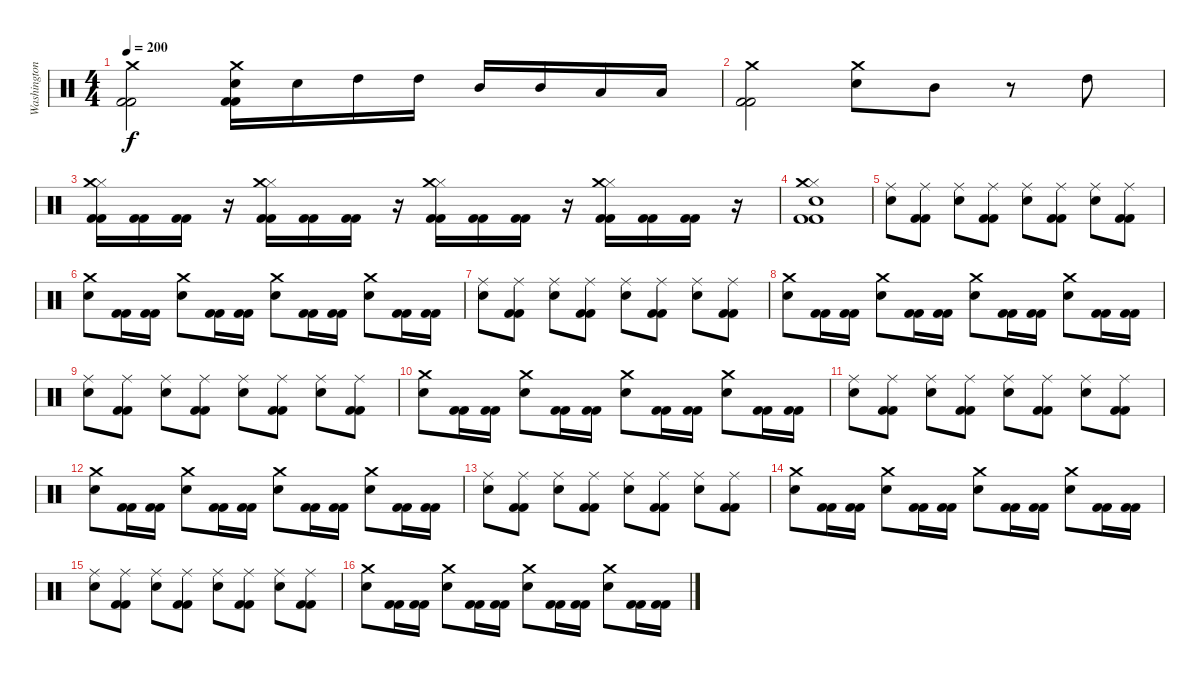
\track ("Washington" "Washington") {instrument percussion}
\staff {score}
\articulation defaults
\ts (4 4)
\tempo 200
\clef neutral
\ks c
("Crash medium (hit)" "Kick (hit) 2" "Kick (hit) 2").2{dy f} ("Crash medium (hit)" "Electric Snare (hit)" "Kick (hit) 2" "Kick (hit) 2").16 "Electric Snare (hit)".16 "High Tom (hit)".16 "High Tom (hit)".16 "Mid Tom (hit)".16 "Mid Tom (hit)".16 "Low Tom (hit)".16 "Low Tom (hit)".16 |
("Crash medium (hit)" "Kick (hit) 2" "Kick (hit) 2").2 ("Crash medium (hit)" "Electric Snare (hit)").8 "Mid Tom (hit)".8 r.8 "High Tom (hit)".8 |
("Hi-Hat (closed)" "Crash medium (hit)" "Kick (hit) 2" "Kick (hit) 2").16 ("Kick (hit) 2" "Kick (hit) 2").16 ("Kick (hit) 2" "Kick (hit) 2").16 r.16 ("Hi-Hat (closed)" "Crash medium (hit)" "Kick (hit) 2" "Kick (hit) 2").16 ("Kick (hit) 2" "Kick (hit) 2").16 ("Kick (hit) 2" "Kick (hit) 2").16 r.16 ("Hi-Hat (closed)" "Crash medium (hit)" "Kick (hit) 2" "Kick (hit) 2").16 ("Kick (hit) 2" "Kick (hit) 2").16 ("Kick (hit) 2" "Kick (hit) 2").16 r.16 ("Hi-Hat (closed)" "Crash medium (hit)" "Kick (hit) 2" "Kick (hit) 2").16 ("Kick (hit) 2" "Kick (hit) 2").16 ("Kick (hit) 2" "Kick (hit) 2").16 r.16 |
("Hi-Hat (closed)" "Crash medium (hit)" "Electric Snare (hit)" "Kick (hit) 2" "Kick (hit) 2").1 |
("Ride (middle)" "Electric Snare (hit)").8 ("Ride (middle)" "Kick (hit) 2" "Kick (hit) 2").8 ("Ride (middle)" "Electric Snare (hit)").8 ("Ride (middle)" "Kick (hit) 2" "Kick (hit) 2").8 ("Ride (middle)" "Electric Snare (hit)").8 ("Ride (middle)" "Kick (hit) 2" "Kick (hit) 2").8 ("Ride (middle)" "Electric Snare (hit)").8 ("Ride (middle)" "Kick (hit) 2" "Kick (hit) 2").8 |
("Crash medium (hit)" "Electric Snare (hit)").8 ("Kick (hit) 2" "Kick (hit) 2").16 ("Kick (hit) 2" "Kick (hit) 2").16 ("Crash medium (hit)" "Electric Snare (hit)").8 ("Kick (hit) 2" "Kick (hit) 2").16 ("Kick (hit) 2" "Kick (hit) 2").16 ("Crash medium (hit)" "Electric Snare (hit)").8 ("Kick (hit) 2" "Kick (hit) 2").16 ("Kick (hit) 2" "Kick (hit) 2").16 ("Crash medium (hit)" "Electric Snare (hit)").8 ("Kick (hit) 2" "Kick (hit) 2").16 ("Kick (hit) 2" "Kick (hit) 2").16 |
("Ride (middle)" "Electric Snare (hit)").8 ("Ride (middle)" "Kick (hit) 2" "Kick (hit) 2").8 ("Ride (middle)" "Electric Snare (hit)").8 ("Ride (middle)" "Kick (hit) 2" "Kick (hit) 2").8 ("Ride (middle)" "Electric Snare (hit)").8 ("Ride (middle)" "Kick (hit) 2" "Kick (hit) 2").8 ("Ride (middle)" "Electric Snare (hit)").8 ("Ride (middle)" "Kick (hit) 2" "Kick (hit) 2").8 |
("Crash medium (hit)" "Electric Snare (hit)").8 ("Kick (hit) 2" "Kick (hit) 2").16 ("Kick (hit) 2" "Kick (hit) 2").16 ("Crash medium (hit)" "Electric Snare (hit)").8 ("Kick (hit) 2" "Kick (hit) 2").16 ("Kick (hit) 2" "Kick (hit) 2").16 ("Crash medium (hit)" "Electric Snare (hit)").8 ("Kick (hit) 2" "Kick (hit) 2").16 ("Kick (hit) 2" "Kick (hit) 2").16 ("Crash medium (hit)" "Electric Snare (hit)").8 ("Kick (hit) 2" "Kick (hit) 2").16 ("Kick (hit) 2" "Kick (hit) 2").16 |
("Ride (middle)" "Electric Snare (hit)").8 ("Ride (middle)" "Kick (hit) 2" "Kick (hit) 2").8 ("Ride (middle)" "Electric Snare (hit)").8 ("Ride (middle)" "Kick (hit) 2" "Kick (hit) 2").8 ("Ride (middle)" "Electric Snare (hit)").8 ("Ride (middle)" "Kick (hit) 2" "Kick (hit) 2").8 ("Ride (middle)" "Electric Snare (hit)").8 ("Ride (middle)" "Kick (hit) 2" "Kick (hit) 2").8 |
("Crash medium (hit)" "Electric Snare (hit)").8 ("Kick (hit) 2" "Kick (hit) 2").16 ("Kick (hit) 2" "Kick (hit) 2").16 ("Crash medium (hit)" "Electric Snare (hit)").8 ("Kick (hit) 2" "Kick (hit) 2").16 ("Kick (hit) 2" "Kick (hit) 2").16 ("Crash medium (hit)" "Electric Snare (hit)").8 ("Kick (hit) 2" "Kick (hit) 2").16 ("Kick (hit) 2" "Kick (hit) 2").16 ("Crash medium (hit)" "Electric Snare (hit)").8 ("Kick (hit) 2" "Kick (hit) 2").16 ("Kick (hit) 2" "Kick (hit) 2").16 |
("Ride (middle)" "Electric Snare (hit)").8 ("Ride (middle)" "Kick (hit) 2" "Kick (hit) 2").8 ("Ride (middle)" "Electric Snare (hit)").8 ("Ride (middle)" "Kick (hit) 2" "Kick (hit) 2").8 ("Ride (middle)" "Electric Snare (hit)").8 ("Ride (middle)" "Kick (hit) 2" "Kick (hit) 2").8 ("Ride (middle)" "Electric Snare (hit)").8 ("Ride (middle)" "Kick (hit) 2" "Kick (hit) 2").8 |
("Crash medium (hit)" "Electric Snare (hit)").8 ("Kick (hit) 2" "Kick (hit) 2").16 ("Kick (hit) 2" "Kick (hit) 2").16 ("Crash medium (hit)" "Electric Snare (hit)").8 ("Kick (hit) 2" "Kick (hit) 2").16 ("Kick (hit) 2" "Kick (hit) 2").16 ("Crash medium (hit)" "Electric Snare (hit)").8 ("Kick (hit) 2" "Kick (hit) 2").16 ("Kick (hit) 2" "Kick (hit) 2").16 ("Crash medium (hit)" "Electric Snare (hit)").8 ("Kick (hit) 2" "Kick (hit) 2").16 ("Kick (hit) 2" "Kick (hit) 2").16 |
("Ride (middle)" "Electric Snare (hit)").8 ("Ride (middle)" "Kick (hit) 2" "Kick (hit) 2").8 ("Ride (middle)" "Electric Snare (hit)").8 ("Ride (middle)" "Kick (hit) 2" "Kick (hit) 2").8 ("Ride (middle)" "Electric Snare (hit)").8 ("Ride (middle)" "Kick (hit) 2" "Kick (hit) 2").8 ("Ride (middle)" "Electric Snare (hit)").8 ("Ride (middle)" "Kick (hit) 2" "Kick (hit) 2").8 |
("Crash medium (hit)" "Electric Snare (hit)").8 ("Kick (hit) 2" "Kick (hit) 2").16 ("Kick (hit) 2" "Kick (hit) 2").16 ("Crash medium (hit)" "Electric Snare (hit)").8 ("Kick (hit) 2" "Kick (hit) 2").16 ("Kick (hit) 2" "Kick (hit) 2").16 ("Crash medium (hit)" "Electric Snare (hit)").8 ("Kick (hit) 2" "Kick (hit) 2").16 ("Kick (hit) 2" "Kick (hit) 2").16 ("Crash medium (hit)" "Electric Snare (hit)").8 ("Kick (hit) 2" "Kick (hit) 2").16 ("Kick (hit) 2" "Kick (hit) 2").16 |
("Ride (middle)" "Electric Snare (hit)").8 ("Ride (middle)" "Kick (hit) 2" "Kick (hit) 2").8 ("Ride (middle)" "Electric Snare (hit)").8 ("Ride (middle)" "Kick (hit) 2" "Kick (hit) 2").8 ("Ride (middle)" "Electric Snare (hit)").8 ("Ride (middle)" "Kick (hit) 2" "Kick (hit) 2").8 ("Ride (middle)" "Electric Snare (hit)").8 ("Ride (middle)" "Kick (hit) 2" "Kick (hit) 2").8 |
("Crash medium (hit)" "Electric Snare (hit)").8 ("Kick (hit) 2" "Kick (hit) 2").16 ("Kick (hit) 2" "Kick (hit) 2").16 ("Crash medium (hit)" "Electric Snare (hit)").8 ("Kick (hit) 2" "Kick (hit) 2").16 ("Kick (hit) 2" "Kick (hit) 2").16 ("Crash medium (hit)" "Electric Snare (hit)").8 ("Kick (hit) 2" "Kick (hit) 2").16 ("Kick (hit) 2" "Kick (hit) 2").16 ("Crash medium (hit)" "Electric Snare (hit)").8 ("Kick (hit) 2" "Kick (hit) 2").16 ("Kick (hit) 2" "Kick (hit) 2").16
